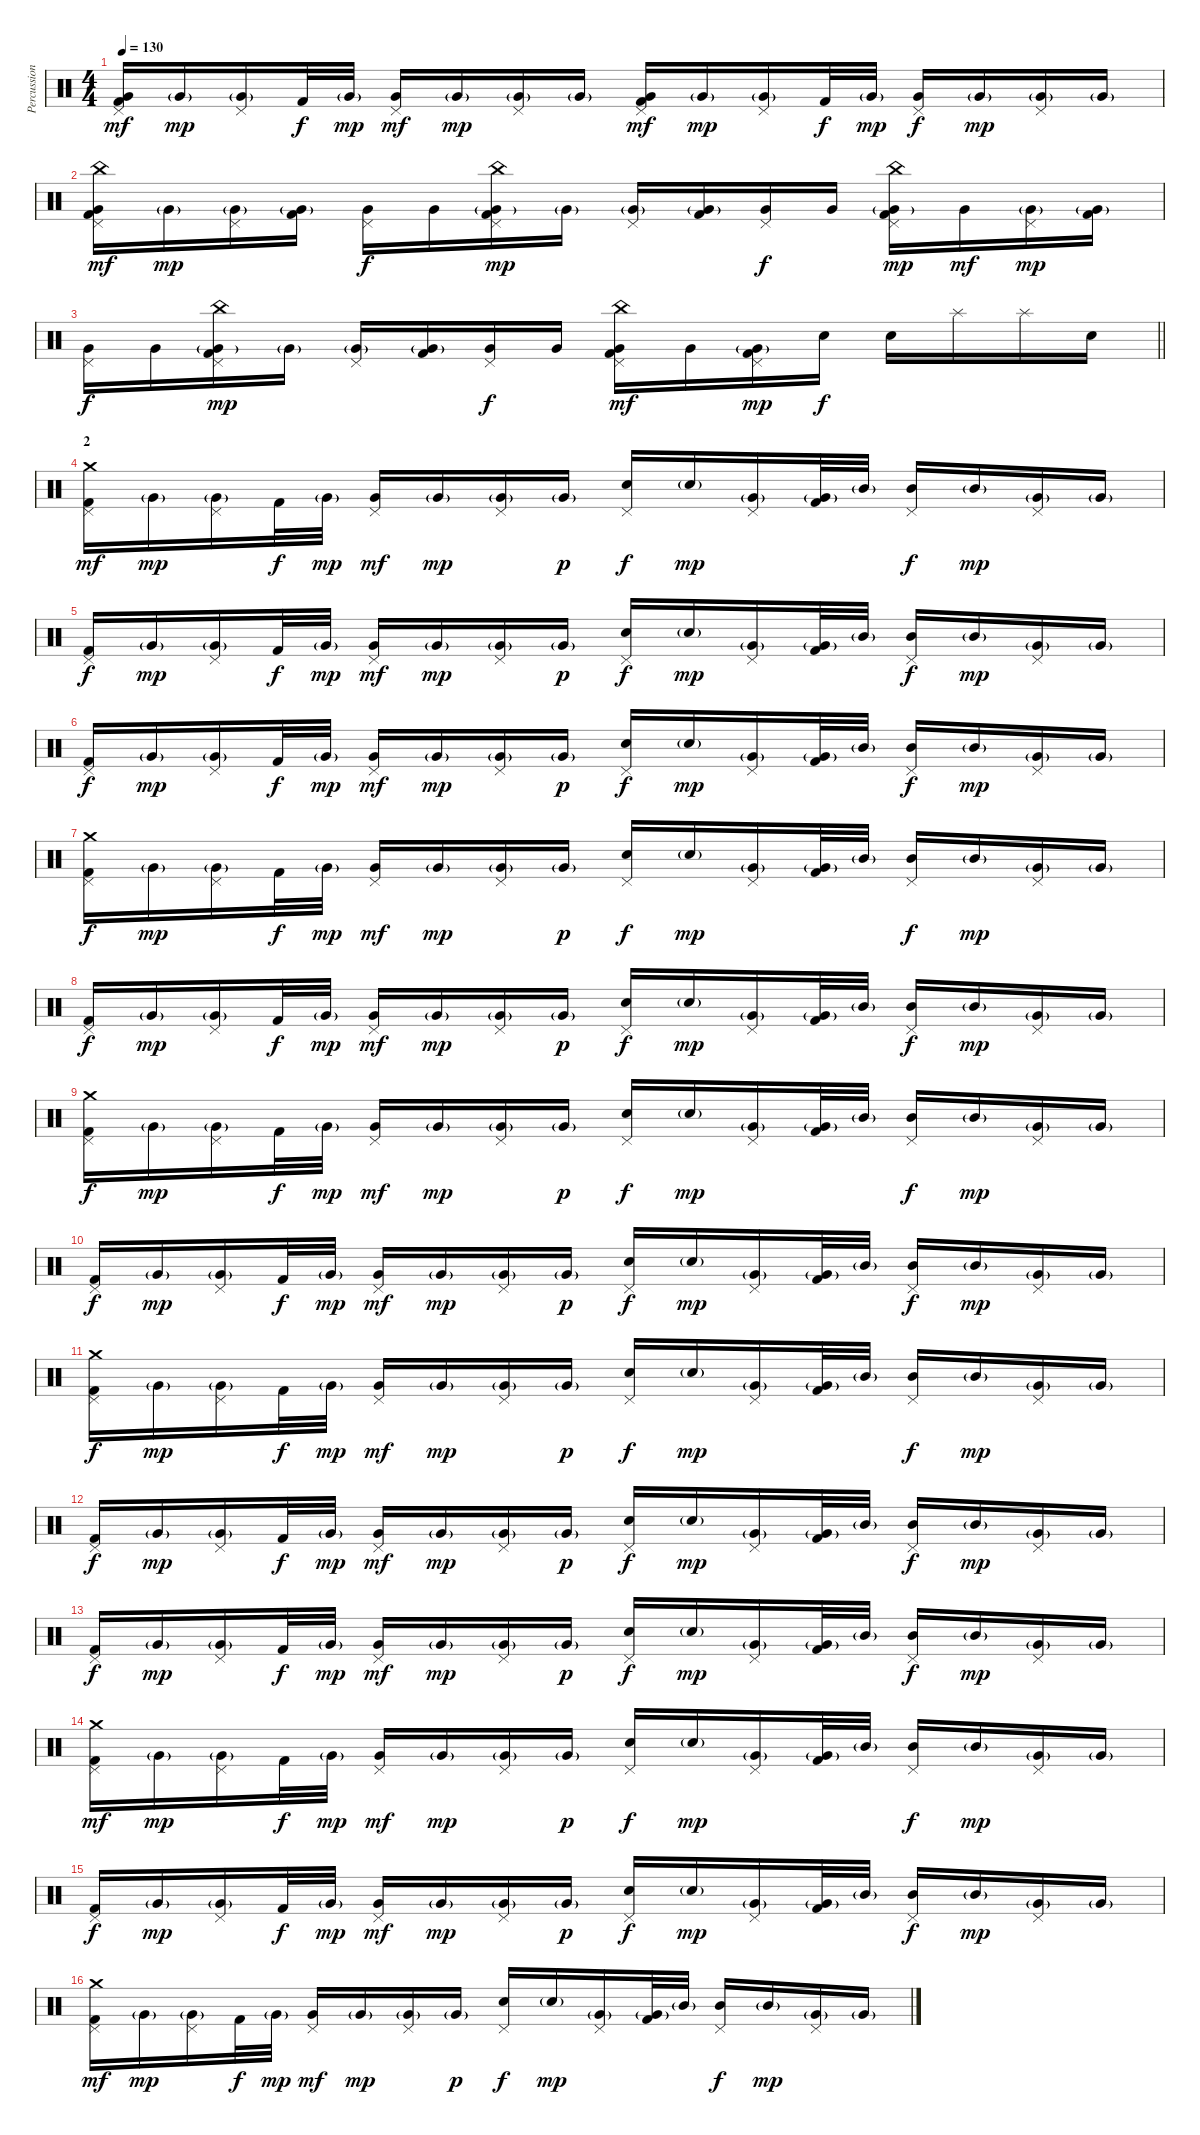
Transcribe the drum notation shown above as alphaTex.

\track ("Percussion" "Percussion") {instrument percussion}
\staff {score}
\articulation defaults
\ts (4 4)
\tempo 130
\clef neutral
\ks c
("Pedal Hi-Hat (hit)" "Very Low Tom (hit)" "Kick (hit) 2").16{dy mf} "Very Low Tom (hit)"{g}.16{dy mp} ("Pedal Hi-Hat (hit)" "Very Low Tom (hit)"{g}).16 "Kick (hit) 2".32{dy f} "Very Low Tom (hit)"{g}.32{dy mp} ("Pedal Hi-Hat (hit)" "Very Low Tom (hit)").16{dy mf} "Very Low Tom (hit)"{g}.16{dy mp} ("Pedal Hi-Hat (hit)" "Very Low Tom (hit)"{g}).16 "Very Low Tom (hit)"{g}.16 ("Pedal Hi-Hat (hit)" "Very Low Tom (hit)" "Kick (hit) 2").16{dy mf} "Very Low Tom (hit)"{g}.16{dy mp} ("Pedal Hi-Hat (hit)" "Very Low Tom (hit)"{g}).16 "Kick (hit) 2".32{dy f} "Very Low Tom (hit)"{g}.32{dy mp} ("Pedal Hi-Hat (hit)" "Very Low Tom (hit)").16{dy f} "Very Low Tom (hit)"{g}.16{dy mp} ("Pedal Hi-Hat (hit)" "Very Low Tom (hit)"{g}).16 "Very Low Tom (hit)"{g}.16 |
("China (hit)" "Pedal Hi-Hat (hit)" "Very Low Tom (hit)" "Kick (hit) 2").16{dy mf} "Very Low Tom (hit)"{g}.16{dy mp} ("Pedal Hi-Hat (hit)" "Very Low Tom (hit)"{g}).16 ("Very Low Tom (hit)"{g} "Kick (hit) 2").16 ("Pedal Hi-Hat (hit)" "Very Low Tom (hit)").16{dy f} "Very Low Tom (hit)".16 ("China (hit)" "Pedal Hi-Hat (hit)" "Very Low Tom (hit)"{g} "Kick (hit) 2").16{dy mp} "Very Low Tom (hit)"{g}.16 ("Pedal Hi-Hat (hit)" "Very Low Tom (hit)"{g}).16 ("Very Low Tom (hit)"{g} "Kick (hit) 2").16 ("Pedal Hi-Hat (hit)" "Very Low Tom (hit)").16{dy f} "Very Low Tom (hit)".16 ("China (hit)" "Pedal Hi-Hat (hit)" "Very Low Tom (hit)"{g} "Kick (hit) 2").16{dy mp} "Very Low Tom (hit)".16{dy mf} ("Pedal Hi-Hat (hit)" "Very Low Tom (hit)"{g}).16{dy mp} ("Very Low Tom (hit)"{g} "Kick (hit) 2").16 |
\barLineRight lightlight
("Pedal Hi-Hat (hit)" "Very Low Tom (hit)").16{dy f} "Very Low Tom (hit)".16 ("China (hit)" "Pedal Hi-Hat (hit)" "Very Low Tom (hit)"{g} "Kick (hit) 2").16{dy mp} "Very Low Tom (hit)"{g}.16 ("Pedal Hi-Hat (hit)" "Very Low Tom (hit)"{g}).16 ("Very Low Tom (hit)"{g} "Kick (hit) 2").16 ("Pedal Hi-Hat (hit)" "Very Low Tom (hit)").16{dy f} "Very Low Tom (hit)".16 ("China (hit)" "Pedal Hi-Hat (hit)" "Very Low Tom (hit)" "Kick (hit) 2").16{dy mf} "Very Low Tom (hit)".16 ("Pedal Hi-Hat (hit)" "Very Low Tom (hit)"{g} "Kick (hit) 2").16{dy mp} "Snare (hit) 2".16{dy f} "Snare (hit) 2".16 "Splash (hit)".16 "Splash (hit)".16 "Snare (hit) 2".16 |
\section ("" "2")
("Crash medium (hit)" "Pedal Hi-Hat (hit)" "Kick (hit) 2").16{dy mf} "Very Low Tom (hit)"{g}.16{dy mp} ("Pedal Hi-Hat (hit)" "Very Low Tom (hit)"{g}).16 "Kick (hit) 2".32{dy f} "Very Low Tom (hit)"{g}.32{dy mp} ("Pedal Hi-Hat (hit)" "Very Low Tom (hit)").16{dy mf} "Very Low Tom (hit)"{g}.16{dy mp} ("Pedal Hi-Hat (hit)" "Very Low Tom (hit)"{g}).16 "Very Low Tom (hit)"{g}.16{dy p} ("Pedal Hi-Hat (hit)" "Snare (hit) 2").16{dy f} "Snare (hit) 2"{g}.16{dy mp} ("Pedal Hi-Hat (hit)" "Very Low Tom (hit)"{g}).16 ("Very Low Tom (hit)"{g} "Kick (hit) 2").32 "Mid Tom (hit)"{g}.32 ("Pedal Hi-Hat (hit)" "Mid Tom (hit)").16{dy f} "Mid Tom (hit)"{g}.16{dy mp} ("Pedal Hi-Hat (hit)" "Very Low Tom (hit)"{g}).16 "Very Low Tom (hit)"{g}.16 |
("Pedal Hi-Hat (hit)" "Kick (hit) 2").16{dy f} "Very Low Tom (hit)"{g}.16{dy mp} ("Pedal Hi-Hat (hit)" "Very Low Tom (hit)"{g}).16 "Kick (hit) 2".32{dy f} "Very Low Tom (hit)"{g}.32{dy mp} ("Pedal Hi-Hat (hit)" "Very Low Tom (hit)").16{dy mf} "Very Low Tom (hit)"{g}.16{dy mp} ("Pedal Hi-Hat (hit)" "Very Low Tom (hit)"{g}).16 "Very Low Tom (hit)"{g}.16{dy p} ("Pedal Hi-Hat (hit)" "Snare (hit) 2").16{dy f} "Snare (hit) 2"{g}.16{dy mp} ("Pedal Hi-Hat (hit)" "Very Low Tom (hit)"{g}).16 ("Very Low Tom (hit)"{g} "Kick (hit) 2").32 "Mid Tom (hit)"{g}.32 ("Pedal Hi-Hat (hit)" "Mid Tom (hit)").16{dy f} "Mid Tom (hit)"{g}.16{dy mp} ("Pedal Hi-Hat (hit)" "Very Low Tom (hit)"{g}).16 "Very Low Tom (hit)"{g}.16 |
("Pedal Hi-Hat (hit)" "Kick (hit) 2").16{dy f} "Very Low Tom (hit)"{g}.16{dy mp} ("Pedal Hi-Hat (hit)" "Very Low Tom (hit)"{g}).16 "Kick (hit) 2".32{dy f} "Very Low Tom (hit)"{g}.32{dy mp} ("Pedal Hi-Hat (hit)" "Very Low Tom (hit)").16{dy mf} "Very Low Tom (hit)"{g}.16{dy mp} ("Pedal Hi-Hat (hit)" "Very Low Tom (hit)"{g}).16 "Very Low Tom (hit)"{g}.16{dy p} ("Pedal Hi-Hat (hit)" "Snare (hit) 2").16{dy f} "Snare (hit) 2"{g}.16{dy mp} ("Pedal Hi-Hat (hit)" "Very Low Tom (hit)"{g}).16 ("Very Low Tom (hit)"{g} "Kick (hit) 2").32 "Mid Tom (hit)"{g}.32 ("Pedal Hi-Hat (hit)" "Mid Tom (hit)").16{dy f} "Mid Tom (hit)"{g}.16{dy mp} ("Pedal Hi-Hat (hit)" "Very Low Tom (hit)"{g}).16 "Very Low Tom (hit)"{g}.16 |
("Crash medium (hit)" "Pedal Hi-Hat (hit)" "Kick (hit) 2").16{dy f} "Very Low Tom (hit)"{g}.16{dy mp} ("Pedal Hi-Hat (hit)" "Very Low Tom (hit)"{g}).16 "Kick (hit) 2".32{dy f} "Very Low Tom (hit)"{g}.32{dy mp} ("Pedal Hi-Hat (hit)" "Very Low Tom (hit)").16{dy mf} "Very Low Tom (hit)"{g}.16{dy mp} ("Pedal Hi-Hat (hit)" "Very Low Tom (hit)"{g}).16 "Very Low Tom (hit)"{g}.16{dy p} ("Pedal Hi-Hat (hit)" "Snare (hit) 2").16{dy f} "Snare (hit) 2"{g}.16{dy mp} ("Pedal Hi-Hat (hit)" "Very Low Tom (hit)"{g}).16 ("Very Low Tom (hit)"{g} "Kick (hit) 2").32 "Mid Tom (hit)"{g}.32 ("Pedal Hi-Hat (hit)" "Mid Tom (hit)").16{dy f} "Mid Tom (hit)"{g}.16{dy mp} ("Pedal Hi-Hat (hit)" "Very Low Tom (hit)"{g}).16 "Very Low Tom (hit)"{g}.16 |
("Pedal Hi-Hat (hit)" "Kick (hit) 2").16{dy f} "Very Low Tom (hit)"{g}.16{dy mp} ("Pedal Hi-Hat (hit)" "Very Low Tom (hit)"{g}).16 "Kick (hit) 2".32{dy f} "Very Low Tom (hit)"{g}.32{dy mp} ("Pedal Hi-Hat (hit)" "Very Low Tom (hit)").16{dy mf} "Very Low Tom (hit)"{g}.16{dy mp} ("Pedal Hi-Hat (hit)" "Very Low Tom (hit)"{g}).16 "Very Low Tom (hit)"{g}.16{dy p} ("Pedal Hi-Hat (hit)" "Snare (hit) 2").16{dy f} "Snare (hit) 2"{g}.16{dy mp} ("Pedal Hi-Hat (hit)" "Very Low Tom (hit)"{g}).16 ("Very Low Tom (hit)"{g} "Kick (hit) 2").32 "Mid Tom (hit)"{g}.32 ("Pedal Hi-Hat (hit)" "Mid Tom (hit)").16{dy f} "Mid Tom (hit)"{g}.16{dy mp} ("Pedal Hi-Hat (hit)" "Very Low Tom (hit)"{g}).16 "Very Low Tom (hit)"{g}.16 |
("Crash medium (hit)" "Pedal Hi-Hat (hit)" "Kick (hit) 2").16{dy f} "Very Low Tom (hit)"{g}.16{dy mp} ("Pedal Hi-Hat (hit)" "Very Low Tom (hit)"{g}).16 "Kick (hit) 2".32{dy f} "Very Low Tom (hit)"{g}.32{dy mp} ("Pedal Hi-Hat (hit)" "Very Low Tom (hit)").16{dy mf} "Very Low Tom (hit)"{g}.16{dy mp} ("Pedal Hi-Hat (hit)" "Very Low Tom (hit)"{g}).16 "Very Low Tom (hit)"{g}.16{dy p} ("Pedal Hi-Hat (hit)" "Snare (hit) 2").16{dy f} "Snare (hit) 2"{g}.16{dy mp} ("Pedal Hi-Hat (hit)" "Very Low Tom (hit)"{g}).16 ("Very Low Tom (hit)"{g} "Kick (hit) 2").32 "Mid Tom (hit)"{g}.32 ("Pedal Hi-Hat (hit)" "Mid Tom (hit)").16{dy f} "Mid Tom (hit)"{g}.16{dy mp} ("Pedal Hi-Hat (hit)" "Very Low Tom (hit)"{g}).16 "Very Low Tom (hit)"{g}.16 |
("Pedal Hi-Hat (hit)" "Kick (hit) 2").16{dy f} "Very Low Tom (hit)"{g}.16{dy mp} ("Pedal Hi-Hat (hit)" "Very Low Tom (hit)"{g}).16 "Kick (hit) 2".32{dy f} "Very Low Tom (hit)"{g}.32{dy mp} ("Pedal Hi-Hat (hit)" "Very Low Tom (hit)").16{dy mf} "Very Low Tom (hit)"{g}.16{dy mp} ("Pedal Hi-Hat (hit)" "Very Low Tom (hit)"{g}).16 "Very Low Tom (hit)"{g}.16{dy p} ("Pedal Hi-Hat (hit)" "Snare (hit) 2").16{dy f} "Snare (hit) 2"{g}.16{dy mp} ("Pedal Hi-Hat (hit)" "Very Low Tom (hit)"{g}).16 ("Very Low Tom (hit)"{g} "Kick (hit) 2").32 "Mid Tom (hit)"{g}.32 ("Pedal Hi-Hat (hit)" "Mid Tom (hit)").16{dy f} "Mid Tom (hit)"{g}.16{dy mp} ("Pedal Hi-Hat (hit)" "Very Low Tom (hit)"{g}).16 "Very Low Tom (hit)"{g}.16 |
("Crash medium (hit)" "Pedal Hi-Hat (hit)" "Kick (hit) 2").16{dy f} "Very Low Tom (hit)"{g}.16{dy mp} ("Pedal Hi-Hat (hit)" "Very Low Tom (hit)"{g}).16 "Kick (hit) 2".32{dy f} "Very Low Tom (hit)"{g}.32{dy mp} ("Pedal Hi-Hat (hit)" "Very Low Tom (hit)").16{dy mf} "Very Low Tom (hit)"{g}.16{dy mp} ("Pedal Hi-Hat (hit)" "Very Low Tom (hit)"{g}).16 "Very Low Tom (hit)"{g}.16{dy p} ("Pedal Hi-Hat (hit)" "Snare (hit) 2").16{dy f} "Snare (hit) 2"{g}.16{dy mp} ("Pedal Hi-Hat (hit)" "Very Low Tom (hit)"{g}).16 ("Very Low Tom (hit)"{g} "Kick (hit) 2").32 "Mid Tom (hit)"{g}.32 ("Pedal Hi-Hat (hit)" "Mid Tom (hit)").16{dy f} "Mid Tom (hit)"{g}.16{dy mp} ("Pedal Hi-Hat (hit)" "Very Low Tom (hit)"{g}).16 "Very Low Tom (hit)"{g}.16 |
("Pedal Hi-Hat (hit)" "Kick (hit) 2").16{dy f} "Very Low Tom (hit)"{g}.16{dy mp} ("Pedal Hi-Hat (hit)" "Very Low Tom (hit)"{g}).16 "Kick (hit) 2".32{dy f} "Very Low Tom (hit)"{g}.32{dy mp} ("Pedal Hi-Hat (hit)" "Very Low Tom (hit)").16{dy mf} "Very Low Tom (hit)"{g}.16{dy mp} ("Pedal Hi-Hat (hit)" "Very Low Tom (hit)"{g}).16 "Very Low Tom (hit)"{g}.16{dy p} ("Pedal Hi-Hat (hit)" "Snare (hit) 2").16{dy f} "Snare (hit) 2"{g}.16{dy mp} ("Pedal Hi-Hat (hit)" "Very Low Tom (hit)"{g}).16 ("Very Low Tom (hit)"{g} "Kick (hit) 2").32 "Mid Tom (hit)"{g}.32 ("Pedal Hi-Hat (hit)" "Mid Tom (hit)").16{dy f} "Mid Tom (hit)"{g}.16{dy mp} ("Pedal Hi-Hat (hit)" "Very Low Tom (hit)"{g}).16 "Very Low Tom (hit)"{g}.16 |
("Pedal Hi-Hat (hit)" "Kick (hit) 2").16{dy f} "Very Low Tom (hit)"{g}.16{dy mp} ("Pedal Hi-Hat (hit)" "Very Low Tom (hit)"{g}).16 "Kick (hit) 2".32{dy f} "Very Low Tom (hit)"{g}.32{dy mp} ("Pedal Hi-Hat (hit)" "Very Low Tom (hit)").16{dy mf} "Very Low Tom (hit)"{g}.16{dy mp} ("Pedal Hi-Hat (hit)" "Very Low Tom (hit)"{g}).16 "Very Low Tom (hit)"{g}.16{dy p} ("Pedal Hi-Hat (hit)" "Snare (hit) 2").16{dy f} "Snare (hit) 2"{g}.16{dy mp} ("Pedal Hi-Hat (hit)" "Very Low Tom (hit)"{g}).16 ("Very Low Tom (hit)"{g} "Kick (hit) 2").32 "Mid Tom (hit)"{g}.32 ("Pedal Hi-Hat (hit)" "Mid Tom (hit)").16{dy f} "Mid Tom (hit)"{g}.16{dy mp} ("Pedal Hi-Hat (hit)" "Very Low Tom (hit)"{g}).16 "Very Low Tom (hit)"{g}.16 |
("Crash medium (hit)" "Pedal Hi-Hat (hit)" "Kick (hit) 2").16{dy mf} "Very Low Tom (hit)"{g}.16{dy mp} ("Pedal Hi-Hat (hit)" "Very Low Tom (hit)"{g}).16 "Kick (hit) 2".32{dy f} "Very Low Tom (hit)"{g}.32{dy mp} ("Pedal Hi-Hat (hit)" "Very Low Tom (hit)").16{dy mf} "Very Low Tom (hit)"{g}.16{dy mp} ("Pedal Hi-Hat (hit)" "Very Low Tom (hit)"{g}).16 "Very Low Tom (hit)"{g}.16{dy p} ("Pedal Hi-Hat (hit)" "Snare (hit) 2").16{dy f} "Snare (hit) 2"{g}.16{dy mp} ("Pedal Hi-Hat (hit)" "Very Low Tom (hit)"{g}).16 ("Very Low Tom (hit)"{g} "Kick (hit) 2").32 "Mid Tom (hit)"{g}.32 ("Pedal Hi-Hat (hit)" "Mid Tom (hit)").16{dy f} "Mid Tom (hit)"{g}.16{dy mp} ("Pedal Hi-Hat (hit)" "Very Low Tom (hit)"{g}).16 "Very Low Tom (hit)"{g}.16 |
("Pedal Hi-Hat (hit)" "Kick (hit) 2").16{dy f} "Very Low Tom (hit)"{g}.16{dy mp} ("Pedal Hi-Hat (hit)" "Very Low Tom (hit)"{g}).16 "Kick (hit) 2".32{dy f} "Very Low Tom (hit)"{g}.32{dy mp} ("Pedal Hi-Hat (hit)" "Very Low Tom (hit)").16{dy mf} "Very Low Tom (hit)"{g}.16{dy mp} ("Pedal Hi-Hat (hit)" "Very Low Tom (hit)"{g}).16 "Very Low Tom (hit)"{g}.16{dy p} ("Pedal Hi-Hat (hit)" "Snare (hit) 2").16{dy f} "Snare (hit) 2"{g}.16{dy mp} ("Pedal Hi-Hat (hit)" "Very Low Tom (hit)"{g}).16 ("Very Low Tom (hit)"{g} "Kick (hit) 2").32 "Mid Tom (hit)"{g}.32 ("Pedal Hi-Hat (hit)" "Mid Tom (hit)").16{dy f} "Mid Tom (hit)"{g}.16{dy mp} ("Pedal Hi-Hat (hit)" "Very Low Tom (hit)"{g}).16 "Very Low Tom (hit)"{g}.16 |
("Crash medium (hit)" "Pedal Hi-Hat (hit)" "Kick (hit) 2").16{dy mf} "Very Low Tom (hit)"{g}.16{dy mp} ("Pedal Hi-Hat (hit)" "Very Low Tom (hit)"{g}).16 "Kick (hit) 2".32{dy f} "Very Low Tom (hit)"{g}.32{dy mp} ("Pedal Hi-Hat (hit)" "Very Low Tom (hit)").16{dy mf} "Very Low Tom (hit)"{g}.16{dy mp} ("Pedal Hi-Hat (hit)" "Very Low Tom (hit)"{g}).16 "Very Low Tom (hit)"{g}.16{dy p} ("Pedal Hi-Hat (hit)" "Snare (hit) 2").16{dy f} "Snare (hit) 2"{g}.16{dy mp} ("Pedal Hi-Hat (hit)" "Very Low Tom (hit)"{g}).16 ("Very Low Tom (hit)"{g} "Kick (hit) 2").32 "Mid Tom (hit)"{g}.32 ("Pedal Hi-Hat (hit)" "Mid Tom (hit)").16{dy f} "Mid Tom (hit)"{g}.16{dy mp} ("Pedal Hi-Hat (hit)" "Very Low Tom (hit)"{g}).16 "Very Low Tom (hit)"{g}.16
